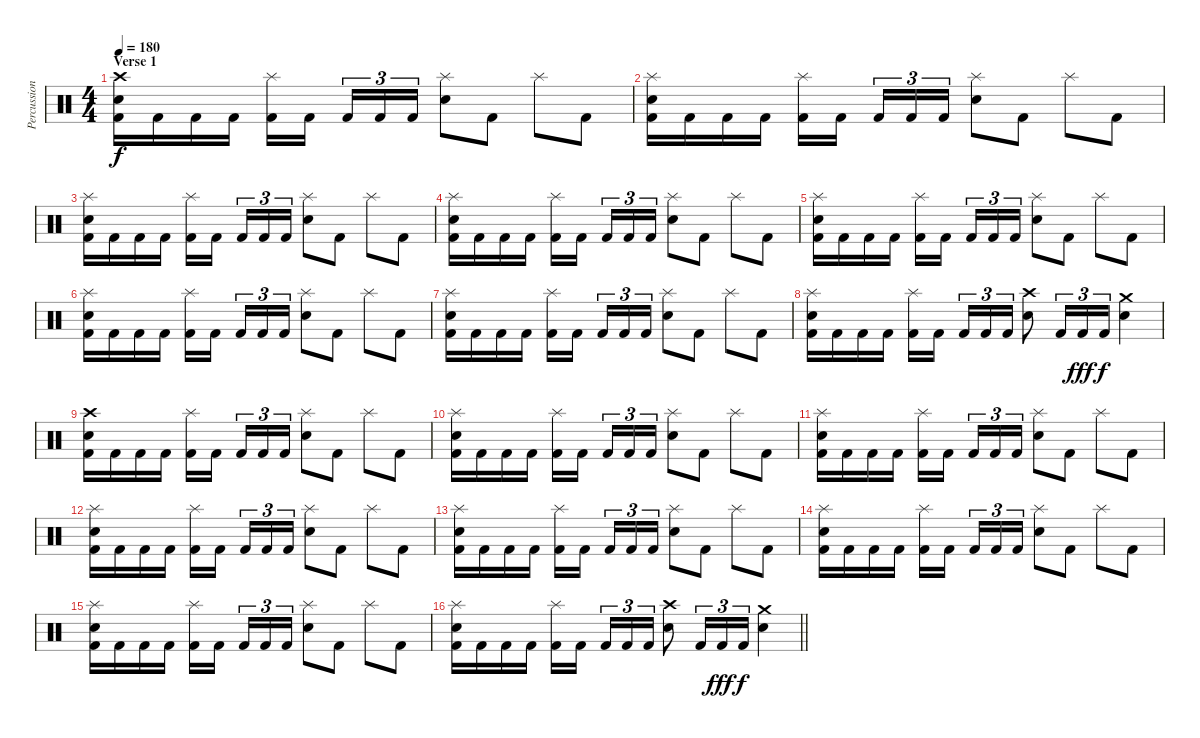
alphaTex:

\track ("Percussion" "Percussion") {instrument percussion}
\staff {score}
\articulation defaults
\ts (4 4)
\section ("" "Verse 1")
\tempo 180
\clef neutral
\ks c
("Crash high (hit)" "Electric Snare (hit)" "Kick (hit) 2").16{dy f} "Kick (hit) 2".16 "Kick (hit) 2".16 "Kick (hit) 2".16 ("Splash (hit)" "Kick (hit) 2").16 "Kick (hit) 2".16{beam splitsecondary} "Kick (hit) 2".16{tu (3 2)} "Kick (hit) 2".16{tu (3 2)} "Kick (hit) 2".16{tu (3 2)} ("Splash (hit)" "Electric Snare (hit)").8 "Kick (hit) 2".8 "Splash (hit)".8 "Kick (hit) 2".8 |
("Splash (hit)" "Electric Snare (hit)" "Kick (hit) 2").16 "Kick (hit) 2".16 "Kick (hit) 2".16 "Kick (hit) 2".16 ("Splash (hit)" "Kick (hit) 2").16 "Kick (hit) 2".16{beam splitsecondary} "Kick (hit) 2".16{tu (3 2)} "Kick (hit) 2".16{tu (3 2)} "Kick (hit) 2".16{tu (3 2)} ("Splash (hit)" "Electric Snare (hit)").8 "Kick (hit) 2".8 "Splash (hit)".8 "Kick (hit) 2".8 |
("Splash (hit)" "Electric Snare (hit)" "Kick (hit) 2").16 "Kick (hit) 2".16 "Kick (hit) 2".16 "Kick (hit) 2".16 ("Splash (hit)" "Kick (hit) 2").16 "Kick (hit) 2".16{beam splitsecondary} "Kick (hit) 2".16{tu (3 2)} "Kick (hit) 2".16{tu (3 2)} "Kick (hit) 2".16{tu (3 2)} ("Splash (hit)" "Electric Snare (hit)").8 "Kick (hit) 2".8 "Splash (hit)".8 "Kick (hit) 2".8 |
("Splash (hit)" "Electric Snare (hit)" "Kick (hit) 2").16 "Kick (hit) 2".16 "Kick (hit) 2".16 "Kick (hit) 2".16 ("Splash (hit)" "Kick (hit) 2").16 "Kick (hit) 2".16{beam splitsecondary} "Kick (hit) 2".16{tu (3 2)} "Kick (hit) 2".16{tu (3 2)} "Kick (hit) 2".16{tu (3 2)} ("Splash (hit)" "Electric Snare (hit)").8 "Kick (hit) 2".8 "Splash (hit)".8 "Kick (hit) 2".8 |
("Splash (hit)" "Electric Snare (hit)" "Kick (hit) 2").16 "Kick (hit) 2".16 "Kick (hit) 2".16 "Kick (hit) 2".16 ("Splash (hit)" "Kick (hit) 2").16 "Kick (hit) 2".16{beam splitsecondary} "Kick (hit) 2".16{tu (3 2)} "Kick (hit) 2".16{tu (3 2)} "Kick (hit) 2".16{tu (3 2)} ("Splash (hit)" "Electric Snare (hit)").8 "Kick (hit) 2".8 "Splash (hit)".8 "Kick (hit) 2".8 |
("Splash (hit)" "Electric Snare (hit)" "Kick (hit) 2").16 "Kick (hit) 2".16 "Kick (hit) 2".16 "Kick (hit) 2".16 ("Splash (hit)" "Kick (hit) 2").16 "Kick (hit) 2".16{beam splitsecondary} "Kick (hit) 2".16{tu (3 2)} "Kick (hit) 2".16{tu (3 2)} "Kick (hit) 2".16{tu (3 2)} ("Splash (hit)" "Electric Snare (hit)").8 "Kick (hit) 2".8 "Splash (hit)".8 "Kick (hit) 2".8 |
("Splash (hit)" "Electric Snare (hit)" "Kick (hit) 2").16 "Kick (hit) 2".16 "Kick (hit) 2".16 "Kick (hit) 2".16 ("Splash (hit)" "Kick (hit) 2").16 "Kick (hit) 2".16{beam splitsecondary} "Kick (hit) 2".16{tu (3 2)} "Kick (hit) 2".16{tu (3 2)} "Kick (hit) 2".16{tu (3 2)} ("Splash (hit)" "Electric Snare (hit)").8 "Kick (hit) 2".8 "Splash (hit)".8 "Kick (hit) 2".8 |
("Splash (hit)" "Electric Snare (hit)" "Kick (hit) 2").16 "Kick (hit) 2".16 "Kick (hit) 2".16 "Kick (hit) 2".16 ("Splash (hit)" "Kick (hit) 2").16 "Kick (hit) 2".16{beam splitsecondary} "Kick (hit) 2".16{tu (3 2)} "Kick (hit) 2".16{tu (3 2)} "Kick (hit) 2".16{tu (3 2)} ("Crash high (hit)" "Electric Snare (hit)").8 "Kick (hit) 2".16{tu (3 2)} "Kick (hit) 2".16{tu (3 2) dy fff} "Kick (hit) 2".16{tu (3 2) dy f} ("Crash medium (hit)" "Electric Snare (hit)").4 |
("Crash high (hit)" "Electric Snare (hit)" "Kick (hit) 2").16 "Kick (hit) 2".16 "Kick (hit) 2".16 "Kick (hit) 2".16 ("Splash (hit)" "Kick (hit) 2").16 "Kick (hit) 2".16{beam splitsecondary} "Kick (hit) 2".16{tu (3 2)} "Kick (hit) 2".16{tu (3 2)} "Kick (hit) 2".16{tu (3 2)} ("Splash (hit)" "Electric Snare (hit)").8 "Kick (hit) 2".8 "Splash (hit)".8 "Kick (hit) 2".8 |
("Splash (hit)" "Electric Snare (hit)" "Kick (hit) 2").16 "Kick (hit) 2".16 "Kick (hit) 2".16 "Kick (hit) 2".16 ("Splash (hit)" "Kick (hit) 2").16 "Kick (hit) 2".16{beam splitsecondary} "Kick (hit) 2".16{tu (3 2)} "Kick (hit) 2".16{tu (3 2)} "Kick (hit) 2".16{tu (3 2)} ("Splash (hit)" "Electric Snare (hit)").8 "Kick (hit) 2".8 "Splash (hit)".8 "Kick (hit) 2".8 |
("Splash (hit)" "Electric Snare (hit)" "Kick (hit) 2").16 "Kick (hit) 2".16 "Kick (hit) 2".16 "Kick (hit) 2".16 ("Splash (hit)" "Kick (hit) 2").16 "Kick (hit) 2".16{beam splitsecondary} "Kick (hit) 2".16{tu (3 2)} "Kick (hit) 2".16{tu (3 2)} "Kick (hit) 2".16{tu (3 2)} ("Splash (hit)" "Electric Snare (hit)").8 "Kick (hit) 2".8 "Splash (hit)".8 "Kick (hit) 2".8 |
("Splash (hit)" "Electric Snare (hit)" "Kick (hit) 2").16 "Kick (hit) 2".16 "Kick (hit) 2".16 "Kick (hit) 2".16 ("Splash (hit)" "Kick (hit) 2").16 "Kick (hit) 2".16{beam splitsecondary} "Kick (hit) 2".16{tu (3 2)} "Kick (hit) 2".16{tu (3 2)} "Kick (hit) 2".16{tu (3 2)} ("Splash (hit)" "Electric Snare (hit)").8 "Kick (hit) 2".8 "Splash (hit)".8 "Kick (hit) 2".8 |
("Splash (hit)" "Electric Snare (hit)" "Kick (hit) 2").16 "Kick (hit) 2".16 "Kick (hit) 2".16 "Kick (hit) 2".16 ("Splash (hit)" "Kick (hit) 2").16 "Kick (hit) 2".16{beam splitsecondary} "Kick (hit) 2".16{tu (3 2)} "Kick (hit) 2".16{tu (3 2)} "Kick (hit) 2".16{tu (3 2)} ("Splash (hit)" "Electric Snare (hit)").8 "Kick (hit) 2".8 "Splash (hit)".8 "Kick (hit) 2".8 |
("Splash (hit)" "Electric Snare (hit)" "Kick (hit) 2").16 "Kick (hit) 2".16 "Kick (hit) 2".16 "Kick (hit) 2".16 ("Splash (hit)" "Kick (hit) 2").16 "Kick (hit) 2".16{beam splitsecondary} "Kick (hit) 2".16{tu (3 2)} "Kick (hit) 2".16{tu (3 2)} "Kick (hit) 2".16{tu (3 2)} ("Splash (hit)" "Electric Snare (hit)").8 "Kick (hit) 2".8 "Splash (hit)".8 "Kick (hit) 2".8 |
("Splash (hit)" "Electric Snare (hit)" "Kick (hit) 2").16 "Kick (hit) 2".16 "Kick (hit) 2".16 "Kick (hit) 2".16 ("Splash (hit)" "Kick (hit) 2").16 "Kick (hit) 2".16{beam splitsecondary} "Kick (hit) 2".16{tu (3 2)} "Kick (hit) 2".16{tu (3 2)} "Kick (hit) 2".16{tu (3 2)} ("Splash (hit)" "Electric Snare (hit)").8 "Kick (hit) 2".8 "Splash (hit)".8 "Kick (hit) 2".8 |
\barLineRight lightlight
("Splash (hit)" "Electric Snare (hit)" "Kick (hit) 2").16 "Kick (hit) 2".16 "Kick (hit) 2".16 "Kick (hit) 2".16 ("Splash (hit)" "Kick (hit) 2").16 "Kick (hit) 2".16{beam splitsecondary} "Kick (hit) 2".16{tu (3 2)} "Kick (hit) 2".16{tu (3 2)} "Kick (hit) 2".16{tu (3 2)} ("Crash high (hit)" "Electric Snare (hit)").8 "Kick (hit) 2".16{tu (3 2)} "Kick (hit) 2".16{tu (3 2) dy fff} "Kick (hit) 2".16{tu (3 2) dy f} ("Crash medium (hit)" "Electric Snare (hit)").4
